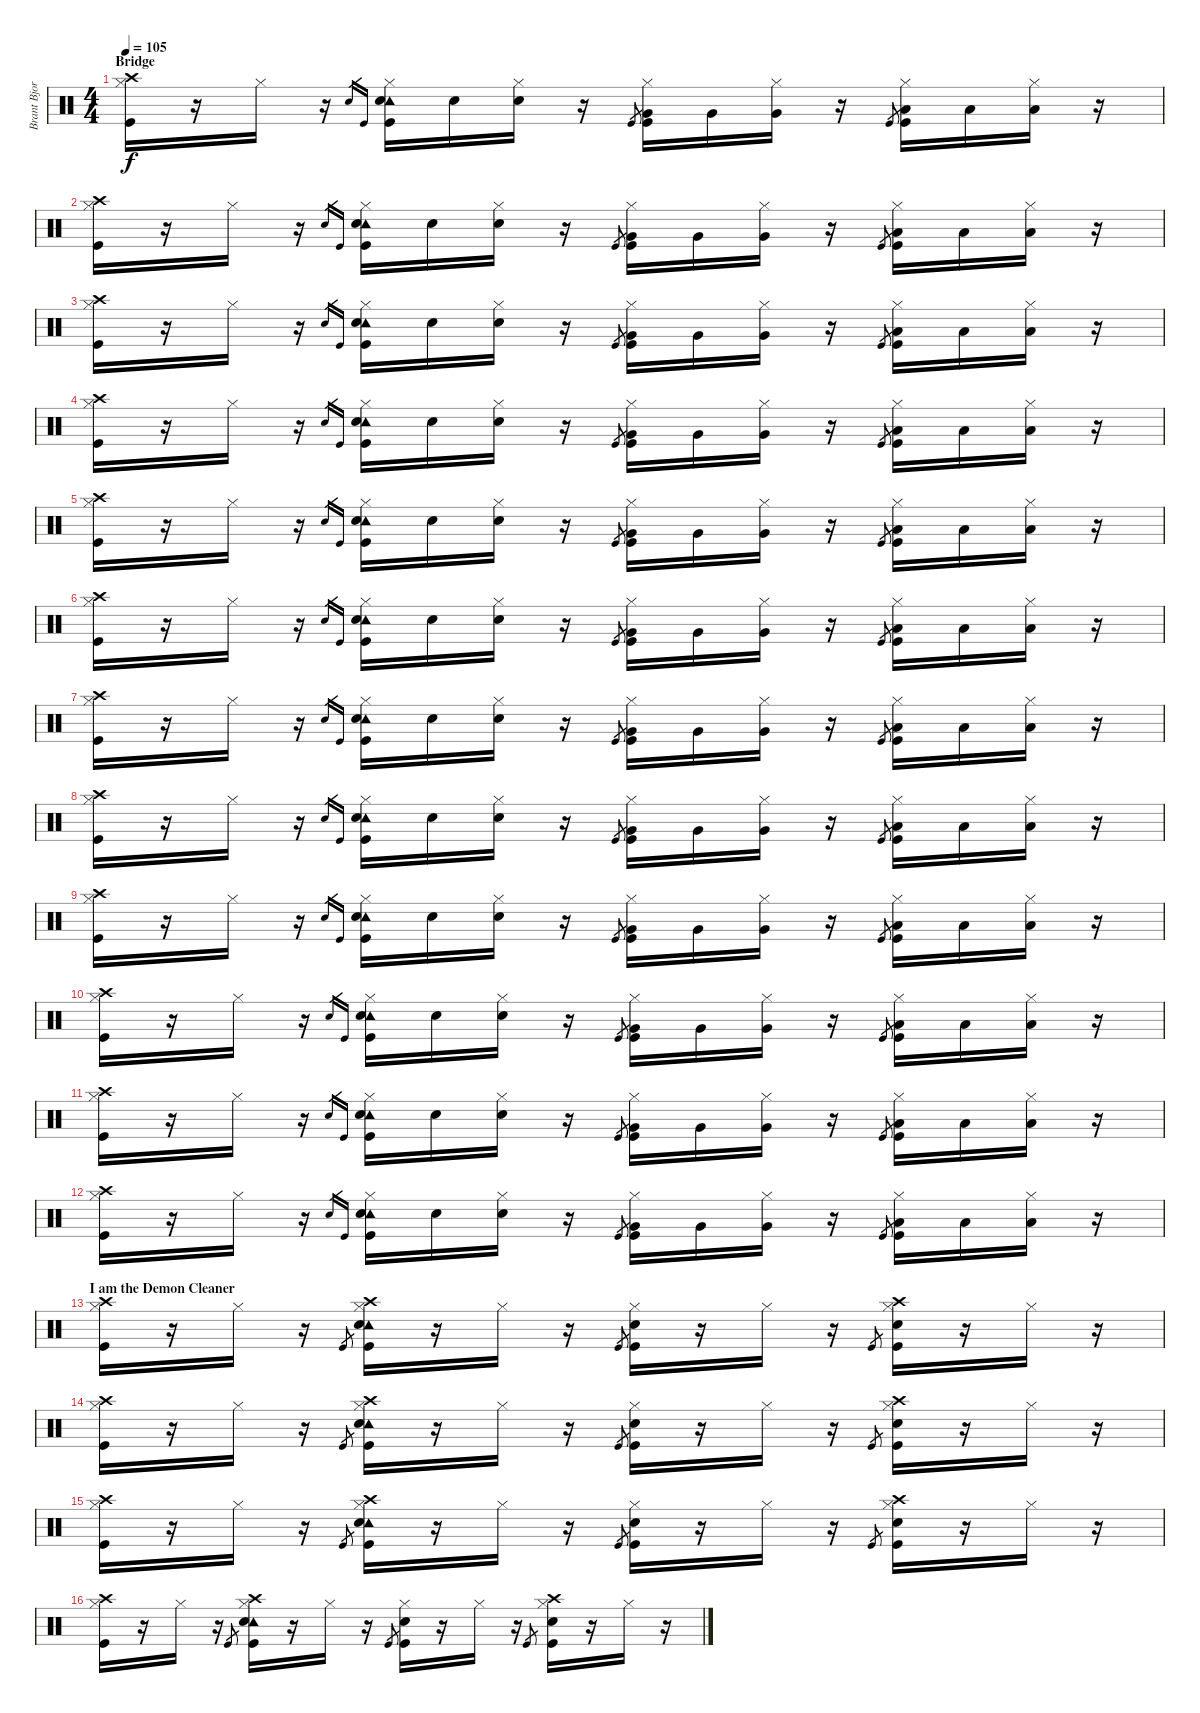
\track ("Brant Bjork - Drums" "Brant Bjor") {instrument percussion}
\staff {score}
\articulation defaults
\ts (4 4)
\section ("" "Bridge")
\tempo 105
\clef neutral
\ks c
("Crash high (hit)" "Hi-Hat (closed)" "Kick (hit)").16{dy f} r.16 "Hi-Hat (closed)".16 r.16 "Snare (hit) 2".16{gr} "Kick (hit)".16{gr} ("Tambourine (hit)" "Hi-Hat (closed)" "Snare (hit) 2" "Kick (hit)").16 "Snare (hit) 2".16 ("Hi-Hat (closed)" "Snare (hit) 2").16 r.16 "Kick (hit)".8{gr} ("Hi-Hat (closed)" "Very Low Tom (hit)" "Kick (hit)").16 "Very Low Tom (hit)".16 ("Hi-Hat (closed)" "Very Low Tom (hit)").16 r.16 "Kick (hit)".8{gr} ("Hi-Hat (closed)" "Low Floor Tom (hit)" "Kick (hit)").16 "Low Floor Tom (hit)".16 ("Hi-Hat (closed)" "Low Floor Tom (hit)").16 r.16 |
("Crash high (hit)" "Hi-Hat (closed)" "Kick (hit)").16 r.16 "Hi-Hat (closed)".16 r.16 "Snare (hit) 2".16{gr} "Kick (hit)".16{gr} ("Tambourine (hit)" "Hi-Hat (closed)" "Snare (hit) 2" "Kick (hit)").16 "Snare (hit) 2".16 ("Hi-Hat (closed)" "Snare (hit) 2").16 r.16 "Kick (hit)".8{gr} ("Hi-Hat (closed)" "Very Low Tom (hit)" "Kick (hit)").16 "Very Low Tom (hit)".16 ("Hi-Hat (closed)" "Very Low Tom (hit)").16 r.16 "Kick (hit)".8{gr} ("Hi-Hat (closed)" "Low Floor Tom (hit)" "Kick (hit)").16 "Low Floor Tom (hit)".16 ("Hi-Hat (closed)" "Low Floor Tom (hit)").16 r.16 |
("Crash high (hit)" "Hi-Hat (closed)" "Kick (hit)").16 r.16 "Hi-Hat (closed)".16 r.16 "Snare (hit) 2".16{gr} "Kick (hit)".16{gr} ("Tambourine (hit)" "Hi-Hat (closed)" "Snare (hit) 2" "Kick (hit)").16 "Snare (hit) 2".16 ("Hi-Hat (closed)" "Snare (hit) 2").16 r.16 "Kick (hit)".8{gr} ("Hi-Hat (closed)" "Very Low Tom (hit)" "Kick (hit)").16 "Very Low Tom (hit)".16 ("Hi-Hat (closed)" "Very Low Tom (hit)").16 r.16 "Kick (hit)".8{gr} ("Hi-Hat (closed)" "Low Floor Tom (hit)" "Kick (hit)").16 "Low Floor Tom (hit)".16 ("Hi-Hat (closed)" "Low Floor Tom (hit)").16 r.16 |
("Crash high (hit)" "Hi-Hat (closed)" "Kick (hit)").16 r.16 "Hi-Hat (closed)".16 r.16 "Snare (hit) 2".16{gr} "Kick (hit)".16{gr} ("Tambourine (hit)" "Hi-Hat (closed)" "Snare (hit) 2" "Kick (hit)").16 "Snare (hit) 2".16 ("Hi-Hat (closed)" "Snare (hit) 2").16 r.16 "Kick (hit)".8{gr} ("Hi-Hat (closed)" "Very Low Tom (hit)" "Kick (hit)").16 "Very Low Tom (hit)".16 ("Hi-Hat (closed)" "Very Low Tom (hit)").16 r.16 "Kick (hit)".8{gr} ("Hi-Hat (closed)" "Low Floor Tom (hit)" "Kick (hit)").16 "Low Floor Tom (hit)".16 ("Hi-Hat (closed)" "Low Floor Tom (hit)").16 r.16 |
("Crash high (hit)" "Hi-Hat (closed)" "Kick (hit)").16 r.16 "Hi-Hat (closed)".16 r.16 "Snare (hit) 2".16{gr} "Kick (hit)".16{gr} ("Tambourine (hit)" "Hi-Hat (closed)" "Snare (hit) 2" "Kick (hit)").16 "Snare (hit) 2".16 ("Hi-Hat (closed)" "Snare (hit) 2").16 r.16 "Kick (hit)".8{gr} ("Hi-Hat (closed)" "Very Low Tom (hit)" "Kick (hit)").16 "Very Low Tom (hit)".16 ("Hi-Hat (closed)" "Very Low Tom (hit)").16 r.16 "Kick (hit)".8{gr} ("Hi-Hat (closed)" "Low Floor Tom (hit)" "Kick (hit)").16 "Low Floor Tom (hit)".16 ("Hi-Hat (closed)" "Low Floor Tom (hit)").16 r.16 |
("Crash high (hit)" "Hi-Hat (closed)" "Kick (hit)").16 r.16 "Hi-Hat (closed)".16 r.16 "Snare (hit) 2".16{gr} "Kick (hit)".16{gr} ("Tambourine (hit)" "Hi-Hat (closed)" "Snare (hit) 2" "Kick (hit)").16 "Snare (hit) 2".16 ("Hi-Hat (closed)" "Snare (hit) 2").16 r.16 "Kick (hit)".8{gr} ("Hi-Hat (closed)" "Very Low Tom (hit)" "Kick (hit)").16 "Very Low Tom (hit)".16 ("Hi-Hat (closed)" "Very Low Tom (hit)").16 r.16 "Kick (hit)".8{gr} ("Hi-Hat (closed)" "Low Floor Tom (hit)" "Kick (hit)").16 "Low Floor Tom (hit)".16 ("Hi-Hat (closed)" "Low Floor Tom (hit)").16 r.16 |
("Crash high (hit)" "Hi-Hat (closed)" "Kick (hit)").16 r.16 "Hi-Hat (closed)".16 r.16 "Snare (hit) 2".16{gr} "Kick (hit)".16{gr} ("Tambourine (hit)" "Hi-Hat (closed)" "Snare (hit) 2" "Kick (hit)").16 "Snare (hit) 2".16 ("Hi-Hat (closed)" "Snare (hit) 2").16 r.16 "Kick (hit)".8{gr} ("Hi-Hat (closed)" "Very Low Tom (hit)" "Kick (hit)").16 "Very Low Tom (hit)".16 ("Hi-Hat (closed)" "Very Low Tom (hit)").16 r.16 "Kick (hit)".8{gr} ("Hi-Hat (closed)" "Low Floor Tom (hit)" "Kick (hit)").16 "Low Floor Tom (hit)".16 ("Hi-Hat (closed)" "Low Floor Tom (hit)").16 r.16 |
("Crash high (hit)" "Hi-Hat (closed)" "Kick (hit)").16 r.16 "Hi-Hat (closed)".16 r.16 "Snare (hit) 2".16{gr} "Kick (hit)".16{gr} ("Tambourine (hit)" "Hi-Hat (closed)" "Snare (hit) 2" "Kick (hit)").16 "Snare (hit) 2".16 ("Hi-Hat (closed)" "Snare (hit) 2").16 r.16 "Kick (hit)".8{gr} ("Hi-Hat (closed)" "Very Low Tom (hit)" "Kick (hit)").16 "Very Low Tom (hit)".16 ("Hi-Hat (closed)" "Very Low Tom (hit)").16 r.16 "Kick (hit)".8{gr} ("Hi-Hat (closed)" "Low Floor Tom (hit)" "Kick (hit)").16 "Low Floor Tom (hit)".16 ("Hi-Hat (closed)" "Low Floor Tom (hit)").16 r.16 |
("Crash high (hit)" "Hi-Hat (closed)" "Kick (hit)").16 r.16 "Hi-Hat (closed)".16 r.16 "Snare (hit) 2".16{gr} "Kick (hit)".16{gr} ("Tambourine (hit)" "Hi-Hat (closed)" "Snare (hit) 2" "Kick (hit)").16 "Snare (hit) 2".16 ("Hi-Hat (closed)" "Snare (hit) 2").16 r.16 "Kick (hit)".8{gr} ("Hi-Hat (closed)" "Very Low Tom (hit)" "Kick (hit)").16 "Very Low Tom (hit)".16 ("Hi-Hat (closed)" "Very Low Tom (hit)").16 r.16 "Kick (hit)".8{gr} ("Hi-Hat (closed)" "Low Floor Tom (hit)" "Kick (hit)").16 "Low Floor Tom (hit)".16 ("Hi-Hat (closed)" "Low Floor Tom (hit)").16 r.16 |
("Crash high (hit)" "Hi-Hat (closed)" "Kick (hit)").16 r.16 "Hi-Hat (closed)".16 r.16 "Snare (hit) 2".16{gr} "Kick (hit)".16{gr} ("Tambourine (hit)" "Hi-Hat (closed)" "Snare (hit) 2" "Kick (hit)").16 "Snare (hit) 2".16 ("Hi-Hat (closed)" "Snare (hit) 2").16 r.16 "Kick (hit)".8{gr} ("Hi-Hat (closed)" "Very Low Tom (hit)" "Kick (hit)").16 "Very Low Tom (hit)".16 ("Hi-Hat (closed)" "Very Low Tom (hit)").16 r.16 "Kick (hit)".8{gr} ("Hi-Hat (closed)" "Low Floor Tom (hit)" "Kick (hit)").16 "Low Floor Tom (hit)".16 ("Hi-Hat (closed)" "Low Floor Tom (hit)").16 r.16 |
("Crash high (hit)" "Hi-Hat (closed)" "Kick (hit)").16 r.16 "Hi-Hat (closed)".16 r.16 "Snare (hit) 2".16{gr} "Kick (hit)".16{gr} ("Tambourine (hit)" "Hi-Hat (closed)" "Snare (hit) 2" "Kick (hit)").16 "Snare (hit) 2".16 ("Hi-Hat (closed)" "Snare (hit) 2").16 r.16 "Kick (hit)".8{gr} ("Hi-Hat (closed)" "Very Low Tom (hit)" "Kick (hit)").16 "Very Low Tom (hit)".16 ("Hi-Hat (closed)" "Very Low Tom (hit)").16 r.16 "Kick (hit)".8{gr} ("Hi-Hat (closed)" "Low Floor Tom (hit)" "Kick (hit)").16 "Low Floor Tom (hit)".16 ("Hi-Hat (closed)" "Low Floor Tom (hit)").16 r.16 |
("Crash high (hit)" "Hi-Hat (closed)" "Kick (hit)").16 r.16 "Hi-Hat (closed)".16 r.16 "Snare (hit) 2".16{gr} "Kick (hit)".16{gr} ("Tambourine (hit)" "Hi-Hat (closed)" "Snare (hit) 2" "Kick (hit)").16 "Snare (hit) 2".16 ("Hi-Hat (closed)" "Snare (hit) 2").16 r.16 "Kick (hit)".8{gr} ("Hi-Hat (closed)" "Very Low Tom (hit)" "Kick (hit)").16 "Very Low Tom (hit)".16 ("Hi-Hat (closed)" "Very Low Tom (hit)").16 r.16 "Kick (hit)".8{gr} ("Hi-Hat (closed)" "Low Floor Tom (hit)" "Kick (hit)").16 "Low Floor Tom (hit)".16 ("Hi-Hat (closed)" "Low Floor Tom (hit)").16 r.16 |
\section ("" "I am the Demon Cleaner")
("Crash high (hit)" "Hi-Hat (closed)" "Kick (hit)").16 r.16 "Hi-Hat (closed)".16 r.16 "Kick (hit)".8{gr} ("Crash high (hit)" "Hi-Hat (closed)" "Tambourine (hit)" "Snare (hit) 2" "Kick (hit)").16 r.16 "Hi-Hat (closed)".16 r.16 "Kick (hit)".8{gr} ("Hi-Hat (closed)" "Snare (hit) 2" "Kick (hit)").16 r.16 "Hi-Hat (closed)".16 r.16 "Kick (hit)".8{gr} ("Crash high (hit)" "Hi-Hat (closed)" "Snare (hit) 2" "Kick (hit)").16 r.16 "Hi-Hat (closed)".16 r.16 |
("Crash high (hit)" "Hi-Hat (closed)" "Kick (hit)").16 r.16 "Hi-Hat (closed)".16 r.16 "Kick (hit)".8{gr} ("Crash high (hit)" "Hi-Hat (closed)" "Tambourine (hit)" "Snare (hit) 2" "Kick (hit)").16 r.16 "Hi-Hat (closed)".16 r.16 "Kick (hit)".8{gr} ("Hi-Hat (closed)" "Snare (hit) 2" "Kick (hit)").16 r.16 "Hi-Hat (closed)".16 r.16 "Kick (hit)".8{gr} ("Crash high (hit)" "Hi-Hat (closed)" "Snare (hit) 2" "Kick (hit)").16 r.16 "Hi-Hat (closed)".16 r.16 |
("Crash high (hit)" "Hi-Hat (closed)" "Kick (hit)").16 r.16 "Hi-Hat (closed)".16 r.16 "Kick (hit)".8{gr} ("Crash high (hit)" "Hi-Hat (closed)" "Tambourine (hit)" "Snare (hit) 2" "Kick (hit)").16 r.16 "Hi-Hat (closed)".16 r.16 "Kick (hit)".8{gr} ("Hi-Hat (closed)" "Snare (hit) 2" "Kick (hit)").16 r.16 "Hi-Hat (closed)".16 r.16 "Kick (hit)".8{gr} ("Crash high (hit)" "Hi-Hat (closed)" "Snare (hit) 2" "Kick (hit)").16 r.16 "Hi-Hat (closed)".16 r.16 |
("Crash high (hit)" "Hi-Hat (closed)" "Kick (hit)").16 r.16 "Hi-Hat (closed)".16 r.16 "Kick (hit)".8{gr} ("Crash high (hit)" "Hi-Hat (closed)" "Tambourine (hit)" "Snare (hit) 2" "Kick (hit)").16 r.16 "Hi-Hat (closed)".16 r.16 "Kick (hit)".8{gr} ("Hi-Hat (closed)" "Snare (hit) 2" "Kick (hit)").16 r.16 "Hi-Hat (closed)".16 r.16 "Kick (hit)".8{gr} ("Crash high (hit)" "Hi-Hat (closed)" "Snare (hit) 2" "Kick (hit)").16 r.16 "Hi-Hat (closed)".16 r.16
